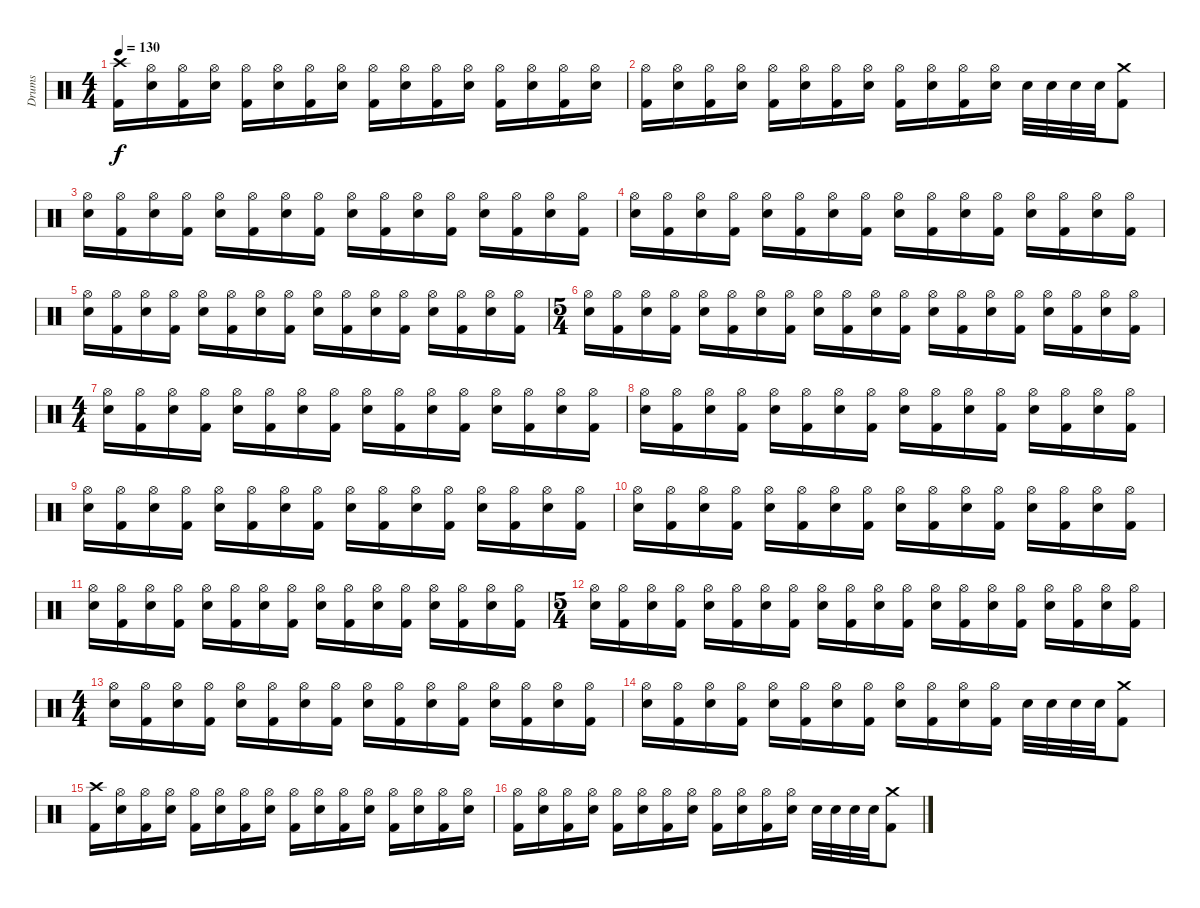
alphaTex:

\track ("Drums" "Drums") {instrument percussion}
\staff {score}
\articulation defaults
\ts (4 4)
\tempo 130
\clef neutral
\ks c
("Crash high (hit)" "Kick (hit) 2").16{dy f} ("Hi-Hat (open)" "Electric Snare (hit)").16 ("Hi-Hat (open)" "Kick (hit) 2").16 ("Hi-Hat (open)" "Electric Snare (hit)").16 ("Hi-Hat (open)" "Kick (hit) 2").16 ("Hi-Hat (open)" "Electric Snare (hit)").16 ("Hi-Hat (open)" "Kick (hit) 2").16 ("Hi-Hat (open)" "Electric Snare (hit)").16 ("Hi-Hat (open)" "Kick (hit) 2").16 ("Hi-Hat (open)" "Electric Snare (hit)").16 ("Hi-Hat (open)" "Kick (hit) 2").16 ("Hi-Hat (open)" "Electric Snare (hit)").16 ("Hi-Hat (open)" "Kick (hit) 2").16 ("Hi-Hat (open)" "Electric Snare (hit)").16 ("Hi-Hat (open)" "Kick (hit) 2").16 ("Hi-Hat (open)" "Electric Snare (hit)").16 |
("Hi-Hat (open)" "Kick (hit) 2").16 ("Hi-Hat (open)" "Electric Snare (hit)").16 ("Hi-Hat (open)" "Kick (hit) 2").16 ("Hi-Hat (open)" "Electric Snare (hit)").16 ("Hi-Hat (open)" "Kick (hit) 2").16 ("Hi-Hat (open)" "Electric Snare (hit)").16 ("Hi-Hat (open)" "Kick (hit) 2").16 ("Hi-Hat (open)" "Electric Snare (hit)").16 ("Hi-Hat (open)" "Kick (hit) 2").16 ("Hi-Hat (open)" "Electric Snare (hit)").16 ("Hi-Hat (open)" "Kick (hit) 2").16 ("Hi-Hat (open)" "Electric Snare (hit)").16 "Electric Snare (hit)".32 "Electric Snare (hit)".32 "Electric Snare (hit)".32 "Electric Snare (hit)".32 ("Crash medium (hit)" "Kick (hit) 2").8 |
("Hi-Hat (open)" "Electric Snare (hit)").16 ("Hi-Hat (open)" "Kick (hit) 2").16 ("Hi-Hat (open)" "Electric Snare (hit)").16 ("Hi-Hat (open)" "Kick (hit) 2").16 ("Hi-Hat (open)" "Electric Snare (hit)").16 ("Hi-Hat (open)" "Kick (hit) 2").16 ("Hi-Hat (open)" "Electric Snare (hit)").16 ("Hi-Hat (open)" "Kick (hit) 2").16 ("Hi-Hat (open)" "Electric Snare (hit)").16 ("Hi-Hat (open)" "Kick (hit) 2").16 ("Hi-Hat (open)" "Electric Snare (hit)").16 ("Hi-Hat (open)" "Kick (hit) 2").16 ("Hi-Hat (open)" "Electric Snare (hit)").16 ("Hi-Hat (open)" "Kick (hit) 2").16 ("Hi-Hat (open)" "Electric Snare (hit)").16 ("Hi-Hat (open)" "Kick (hit) 2").16 |
("Hi-Hat (open)" "Electric Snare (hit)").16 ("Hi-Hat (open)" "Kick (hit) 2").16 ("Hi-Hat (open)" "Electric Snare (hit)").16 ("Hi-Hat (open)" "Kick (hit) 2").16 ("Hi-Hat (open)" "Electric Snare (hit)").16 ("Hi-Hat (open)" "Kick (hit) 2").16 ("Hi-Hat (open)" "Electric Snare (hit)").16 ("Hi-Hat (open)" "Kick (hit) 2").16 ("Hi-Hat (open)" "Electric Snare (hit)").16 ("Hi-Hat (open)" "Kick (hit) 2").16 ("Hi-Hat (open)" "Electric Snare (hit)").16 ("Hi-Hat (open)" "Kick (hit) 2").16 ("Hi-Hat (open)" "Electric Snare (hit)").16 ("Hi-Hat (open)" "Kick (hit) 2").16 ("Hi-Hat (open)" "Electric Snare (hit)").16 ("Hi-Hat (open)" "Kick (hit) 2").16 |
("Hi-Hat (open)" "Electric Snare (hit)").16 ("Hi-Hat (open)" "Kick (hit) 2").16 ("Hi-Hat (open)" "Electric Snare (hit)").16 ("Hi-Hat (open)" "Kick (hit) 2").16 ("Hi-Hat (open)" "Electric Snare (hit)").16 ("Hi-Hat (open)" "Kick (hit) 2").16 ("Hi-Hat (open)" "Electric Snare (hit)").16 ("Hi-Hat (open)" "Kick (hit) 2").16 ("Hi-Hat (open)" "Electric Snare (hit)").16 ("Hi-Hat (open)" "Kick (hit) 2").16 ("Hi-Hat (open)" "Electric Snare (hit)").16 ("Hi-Hat (open)" "Kick (hit) 2").16 ("Hi-Hat (open)" "Electric Snare (hit)").16 ("Hi-Hat (open)" "Kick (hit) 2").16 ("Hi-Hat (open)" "Electric Snare (hit)").16 ("Hi-Hat (open)" "Kick (hit) 2").16 |
\ts (5 4)
("Hi-Hat (open)" "Electric Snare (hit)").16 ("Hi-Hat (open)" "Kick (hit) 2").16 ("Hi-Hat (open)" "Electric Snare (hit)").16 ("Hi-Hat (open)" "Kick (hit) 2").16 ("Hi-Hat (open)" "Electric Snare (hit)").16 ("Hi-Hat (open)" "Kick (hit) 2").16 ("Hi-Hat (open)" "Electric Snare (hit)").16 ("Hi-Hat (open)" "Kick (hit) 2").16 ("Hi-Hat (open)" "Electric Snare (hit)").16 ("Hi-Hat (open)" "Kick (hit) 2").16 ("Hi-Hat (open)" "Electric Snare (hit)").16 ("Hi-Hat (open)" "Kick (hit) 2").16 ("Hi-Hat (open)" "Electric Snare (hit)").16 ("Hi-Hat (open)" "Kick (hit) 2").16 ("Hi-Hat (open)" "Electric Snare (hit)").16 ("Hi-Hat (open)" "Kick (hit) 2").16 ("Hi-Hat (open)" "Electric Snare (hit)").16 ("Hi-Hat (open)" "Kick (hit) 2").16 ("Hi-Hat (open)" "Electric Snare (hit)").16 ("Hi-Hat (open)" "Kick (hit) 2").16 |
\ts (4 4)
("Hi-Hat (open)" "Electric Snare (hit)").16 ("Hi-Hat (open)" "Kick (hit) 2").16 ("Hi-Hat (open)" "Electric Snare (hit)").16 ("Hi-Hat (open)" "Kick (hit) 2").16 ("Hi-Hat (open)" "Electric Snare (hit)").16 ("Hi-Hat (open)" "Kick (hit) 2").16 ("Hi-Hat (open)" "Electric Snare (hit)").16 ("Hi-Hat (open)" "Kick (hit) 2").16 ("Hi-Hat (open)" "Electric Snare (hit)").16 ("Hi-Hat (open)" "Kick (hit) 2").16 ("Hi-Hat (open)" "Electric Snare (hit)").16 ("Hi-Hat (open)" "Kick (hit) 2").16 ("Hi-Hat (open)" "Electric Snare (hit)").16 ("Hi-Hat (open)" "Kick (hit) 2").16 ("Hi-Hat (open)" "Electric Snare (hit)").16 ("Hi-Hat (open)" "Kick (hit) 2").16 |
("Hi-Hat (open)" "Electric Snare (hit)").16 ("Hi-Hat (open)" "Kick (hit) 2").16 ("Hi-Hat (open)" "Electric Snare (hit)").16 ("Hi-Hat (open)" "Kick (hit) 2").16 ("Hi-Hat (open)" "Electric Snare (hit)").16 ("Hi-Hat (open)" "Kick (hit) 2").16 ("Hi-Hat (open)" "Electric Snare (hit)").16 ("Hi-Hat (open)" "Kick (hit) 2").16 ("Hi-Hat (open)" "Electric Snare (hit)").16 ("Hi-Hat (open)" "Kick (hit) 2").16 ("Hi-Hat (open)" "Electric Snare (hit)").16 ("Hi-Hat (open)" "Kick (hit) 2").16 ("Hi-Hat (open)" "Electric Snare (hit)").16 ("Hi-Hat (open)" "Kick (hit) 2").16 ("Hi-Hat (open)" "Electric Snare (hit)").16 ("Hi-Hat (open)" "Kick (hit) 2").16 |
("Hi-Hat (open)" "Electric Snare (hit)").16 ("Hi-Hat (open)" "Kick (hit) 2").16 ("Hi-Hat (open)" "Electric Snare (hit)").16 ("Hi-Hat (open)" "Kick (hit) 2").16 ("Hi-Hat (open)" "Electric Snare (hit)").16 ("Hi-Hat (open)" "Kick (hit) 2").16 ("Hi-Hat (open)" "Electric Snare (hit)").16 ("Hi-Hat (open)" "Kick (hit) 2").16 ("Hi-Hat (open)" "Electric Snare (hit)").16 ("Hi-Hat (open)" "Kick (hit) 2").16 ("Hi-Hat (open)" "Electric Snare (hit)").16 ("Hi-Hat (open)" "Kick (hit) 2").16 ("Hi-Hat (open)" "Electric Snare (hit)").16 ("Hi-Hat (open)" "Kick (hit) 2").16 ("Hi-Hat (open)" "Electric Snare (hit)").16 ("Hi-Hat (open)" "Kick (hit) 2").16 |
("Hi-Hat (open)" "Electric Snare (hit)").16 ("Hi-Hat (open)" "Kick (hit) 2").16 ("Hi-Hat (open)" "Electric Snare (hit)").16 ("Hi-Hat (open)" "Kick (hit) 2").16 ("Hi-Hat (open)" "Electric Snare (hit)").16 ("Hi-Hat (open)" "Kick (hit) 2").16 ("Hi-Hat (open)" "Electric Snare (hit)").16 ("Hi-Hat (open)" "Kick (hit) 2").16 ("Hi-Hat (open)" "Electric Snare (hit)").16 ("Hi-Hat (open)" "Kick (hit) 2").16 ("Hi-Hat (open)" "Electric Snare (hit)").16 ("Hi-Hat (open)" "Kick (hit) 2").16 ("Hi-Hat (open)" "Electric Snare (hit)").16 ("Hi-Hat (open)" "Kick (hit) 2").16 ("Hi-Hat (open)" "Electric Snare (hit)").16 ("Hi-Hat (open)" "Kick (hit) 2").16 |
("Hi-Hat (open)" "Electric Snare (hit)").16 ("Hi-Hat (open)" "Kick (hit) 2").16 ("Hi-Hat (open)" "Electric Snare (hit)").16 ("Hi-Hat (open)" "Kick (hit) 2").16 ("Hi-Hat (open)" "Electric Snare (hit)").16 ("Hi-Hat (open)" "Kick (hit) 2").16 ("Hi-Hat (open)" "Electric Snare (hit)").16 ("Hi-Hat (open)" "Kick (hit) 2").16 ("Hi-Hat (open)" "Electric Snare (hit)").16 ("Hi-Hat (open)" "Kick (hit) 2").16 ("Hi-Hat (open)" "Electric Snare (hit)").16 ("Hi-Hat (open)" "Kick (hit) 2").16 ("Hi-Hat (open)" "Electric Snare (hit)").16 ("Hi-Hat (open)" "Kick (hit) 2").16 ("Hi-Hat (open)" "Electric Snare (hit)").16 ("Hi-Hat (open)" "Kick (hit) 2").16 |
\ts (5 4)
("Hi-Hat (open)" "Electric Snare (hit)").16 ("Hi-Hat (open)" "Kick (hit) 2").16 ("Hi-Hat (open)" "Electric Snare (hit)").16 ("Hi-Hat (open)" "Kick (hit) 2").16 ("Hi-Hat (open)" "Electric Snare (hit)").16 ("Hi-Hat (open)" "Kick (hit) 2").16 ("Hi-Hat (open)" "Electric Snare (hit)").16 ("Hi-Hat (open)" "Kick (hit) 2").16 ("Hi-Hat (open)" "Electric Snare (hit)").16 ("Hi-Hat (open)" "Kick (hit) 2").16 ("Hi-Hat (open)" "Electric Snare (hit)").16 ("Hi-Hat (open)" "Kick (hit) 2").16 ("Hi-Hat (open)" "Electric Snare (hit)").16 ("Hi-Hat (open)" "Kick (hit) 2").16 ("Hi-Hat (open)" "Electric Snare (hit)").16 ("Hi-Hat (open)" "Kick (hit) 2").16 ("Hi-Hat (open)" "Electric Snare (hit)").16 ("Hi-Hat (open)" "Kick (hit) 2").16 ("Hi-Hat (open)" "Electric Snare (hit)").16 ("Hi-Hat (open)" "Kick (hit) 2").16 |
\ts (4 4)
("Hi-Hat (open)" "Electric Snare (hit)").16 ("Hi-Hat (open)" "Kick (hit) 2").16 ("Hi-Hat (open)" "Electric Snare (hit)").16 ("Hi-Hat (open)" "Kick (hit) 2").16 ("Hi-Hat (open)" "Electric Snare (hit)").16 ("Hi-Hat (open)" "Kick (hit) 2").16 ("Hi-Hat (open)" "Electric Snare (hit)").16 ("Hi-Hat (open)" "Kick (hit) 2").16 ("Hi-Hat (open)" "Electric Snare (hit)").16 ("Hi-Hat (open)" "Kick (hit) 2").16 ("Hi-Hat (open)" "Electric Snare (hit)").16 ("Hi-Hat (open)" "Kick (hit) 2").16 ("Hi-Hat (open)" "Electric Snare (hit)").16 ("Hi-Hat (open)" "Kick (hit) 2").16 ("Hi-Hat (open)" "Electric Snare (hit)").16 ("Hi-Hat (open)" "Kick (hit) 2").16 |
("Hi-Hat (open)" "Electric Snare (hit)").16 ("Hi-Hat (open)" "Kick (hit) 2").16 ("Hi-Hat (open)" "Electric Snare (hit)").16 ("Hi-Hat (open)" "Kick (hit) 2").16 ("Hi-Hat (open)" "Electric Snare (hit)").16 ("Hi-Hat (open)" "Kick (hit) 2").16 ("Hi-Hat (open)" "Electric Snare (hit)").16 ("Hi-Hat (open)" "Kick (hit) 2").16 ("Hi-Hat (open)" "Electric Snare (hit)").16 ("Hi-Hat (open)" "Kick (hit) 2").16 ("Hi-Hat (open)" "Electric Snare (hit)").16 ("Hi-Hat (open)" "Kick (hit) 2").16 "Electric Snare (hit)".32 "Electric Snare (hit)".32 "Electric Snare (hit)".32 "Electric Snare (hit)".32 ("Crash medium (hit)" "Kick (hit) 2").8 |
("Crash high (hit)" "Kick (hit) 2").16 ("Hi-Hat (open)" "Electric Snare (hit)").16 ("Hi-Hat (open)" "Kick (hit) 2").16 ("Hi-Hat (open)" "Electric Snare (hit)").16 ("Hi-Hat (open)" "Kick (hit) 2").16 ("Hi-Hat (open)" "Electric Snare (hit)").16 ("Hi-Hat (open)" "Kick (hit) 2").16 ("Hi-Hat (open)" "Electric Snare (hit)").16 ("Hi-Hat (open)" "Kick (hit) 2").16 ("Hi-Hat (open)" "Electric Snare (hit)").16 ("Hi-Hat (open)" "Kick (hit) 2").16 ("Hi-Hat (open)" "Electric Snare (hit)").16 ("Hi-Hat (open)" "Kick (hit) 2").16 ("Hi-Hat (open)" "Electric Snare (hit)").16 ("Hi-Hat (open)" "Kick (hit) 2").16 ("Hi-Hat (open)" "Electric Snare (hit)").16 |
("Hi-Hat (open)" "Kick (hit) 2").16 ("Hi-Hat (open)" "Electric Snare (hit)").16 ("Hi-Hat (open)" "Kick (hit) 2").16 ("Hi-Hat (open)" "Electric Snare (hit)").16 ("Hi-Hat (open)" "Kick (hit) 2").16 ("Hi-Hat (open)" "Electric Snare (hit)").16 ("Hi-Hat (open)" "Kick (hit) 2").16 ("Hi-Hat (open)" "Electric Snare (hit)").16 ("Hi-Hat (open)" "Kick (hit) 2").16 ("Hi-Hat (open)" "Electric Snare (hit)").16 ("Hi-Hat (open)" "Kick (hit) 2").16 ("Hi-Hat (open)" "Electric Snare (hit)").16 "Electric Snare (hit)".32 "Electric Snare (hit)".32 "Electric Snare (hit)".32 "Electric Snare (hit)".32 ("Crash medium (hit)" "Kick (hit) 2").8
